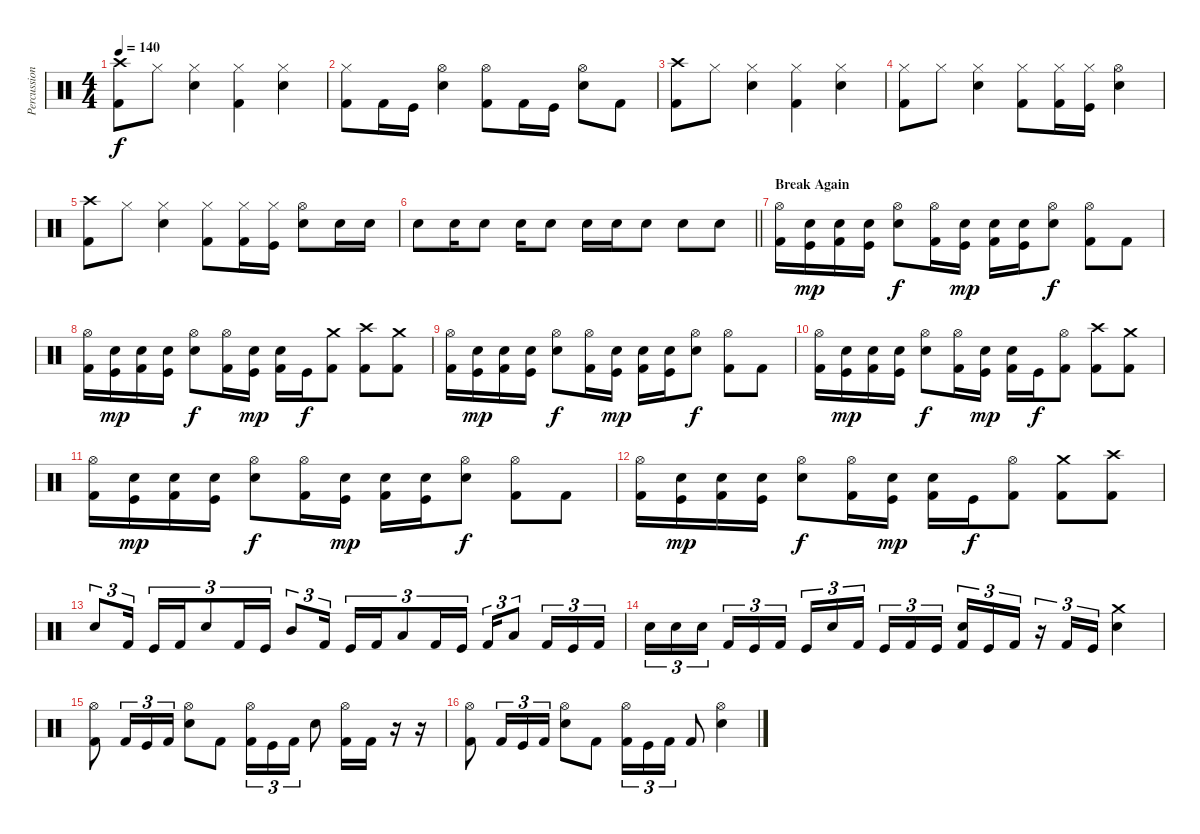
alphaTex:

\track ("Percussion" "Percussion") {instrument percussion}
\staff {score}
\articulation defaults
\ts (4 4)
\tempo 140
\clef neutral
\ks c
("Crash high (hit)" "Kick (hit) 2").8{dy f} "Hi-Hat (closed)".8 ("Hi-Hat (closed)" "Snare (hit) 2").4 ("Hi-Hat (closed)" "Kick (hit) 2").4 ("Hi-Hat (closed)" "Snare (hit) 2").4 |
("Hi-Hat (closed)" "Kick (hit) 2").8 "Kick (hit) 2".16 "Kick (hit)".16 ("Hi-Hat (open)" "Snare (hit) 2").4 ("Hi-Hat (open)" "Kick (hit) 2").8 "Kick (hit) 2".16 "Kick (hit)".16 ("Hi-Hat (open)" "Snare (hit) 2").8 "Kick (hit) 2".8 |
("Crash high (hit)" "Kick (hit) 2").8 "Hi-Hat (closed)".8 ("Hi-Hat (closed)" "Snare (hit) 2").4 ("Hi-Hat (closed)" "Kick (hit) 2").4 ("Hi-Hat (closed)" "Snare (hit) 2").4 |
("Hi-Hat (closed)" "Kick (hit) 2").8 "Hi-Hat (closed)".8 ("Hi-Hat (closed)" "Snare (hit) 2").4 ("Hi-Hat (closed)" "Kick (hit) 2").8 ("Hi-Hat (closed)" "Kick (hit) 2").16 ("Hi-Hat (closed)" "Kick (hit)").16 ("Hi-Hat (open)" "Snare (hit) 2").4 |
("Crash high (hit)" "Kick (hit) 2").8 "Hi-Hat (closed)".8 ("Hi-Hat (closed)" "Snare (hit) 2").4 ("Hi-Hat (closed)" "Kick (hit) 2").8 ("Hi-Hat (closed)" "Kick (hit) 2").16 ("Hi-Hat (closed)" "Kick (hit)").16 ("Hi-Hat (open)" "Snare (hit) 2").8 "Snare (hit) 2".16 "Snare (hit) 2".16 |
\barLineRight lightlight "Snare (hit) 2".8 "Snare (hit) 2".16 "Snare (hit) 2".8 "Snare (hit) 2".16 "Snare (hit) 2".8 "Snare (hit) 2".16 "Snare (hit) 2".16 "Snare (hit) 2".8 "Snare (hit) 2".8 "Snare (hit) 2".8
|
\section ("" "Break Again")
("Hi-Hat (open)" "Kick (hit) 2").16 ("Snare (hit) 2" "Kick (hit)").16{dy mp} ("Snare (hit) 2" "Kick (hit) 2").16 ("Snare (hit) 2" "Kick (hit)").16 ("Hi-Hat (open)" "Snare (hit) 2").8{dy f} ("Hi-Hat (open)" "Kick (hit) 2").16 ("Snare (hit) 2" "Kick (hit)").16{dy mp} ("Snare (hit) 2" "Kick (hit) 2").16 ("Snare (hit) 2" "Kick (hit)").16 ("Hi-Hat (open)" "Snare (hit) 2").8{dy f} ("Hi-Hat (open)" "Kick (hit) 2").8 "Kick (hit) 2".8 |
("Hi-Hat (open)" "Kick (hit) 2").16 ("Snare (hit) 2" "Kick (hit)").16{dy mp} ("Snare (hit) 2" "Kick (hit) 2").16 ("Snare (hit) 2" "Kick (hit)").16 ("Hi-Hat (open)" "Snare (hit) 2").8{dy f} ("Hi-Hat (open)" "Kick (hit) 2").16 ("Snare (hit) 2" "Kick (hit)").16{dy mp} ("Snare (hit) 2" "Kick (hit) 2").16 "Kick (hit)".16{dy f} ("Crash medium (hit)" "Kick (hit) 2").8 ("Crash high (hit)" "Kick (hit) 2").8 ("Crash medium (hit)" "Kick (hit) 2").8 |
("Hi-Hat (open)" "Kick (hit) 2").16 ("Snare (hit) 2" "Kick (hit)").16{dy mp} ("Snare (hit) 2" "Kick (hit) 2").16 ("Snare (hit) 2" "Kick (hit)").16 ("Hi-Hat (open)" "Snare (hit) 2").8{dy f} ("Hi-Hat (open)" "Kick (hit) 2").16 ("Snare (hit) 2" "Kick (hit)").16{dy mp} ("Snare (hit) 2" "Kick (hit) 2").16 ("Snare (hit) 2" "Kick (hit)").16 ("Hi-Hat (open)" "Snare (hit) 2").8{dy f} ("Hi-Hat (open)" "Kick (hit) 2").8 "Kick (hit) 2".8 |
("Hi-Hat (open)" "Kick (hit) 2").16 ("Snare (hit) 2" "Kick (hit)").16{dy mp} ("Snare (hit) 2" "Kick (hit) 2").16 ("Snare (hit) 2" "Kick (hit)").16 ("Hi-Hat (open)" "Snare (hit) 2").8{dy f} ("Hi-Hat (open)" "Kick (hit) 2").16 ("Snare (hit) 2" "Kick (hit)").16{dy mp} ("Snare (hit) 2" "Kick (hit) 2").16 "Kick (hit)".16{dy f} ("Hi-Hat (open)" "Kick (hit) 2").8 ("Crash high (hit)" "Kick (hit) 2").8 ("Crash medium (hit)" "Kick (hit) 2").8 |
("Hi-Hat (open)" "Kick (hit) 2").16 ("Snare (hit) 2" "Kick (hit)").16{dy mp} ("Snare (hit) 2" "Kick (hit) 2").16 ("Snare (hit) 2" "Kick (hit)").16 ("Hi-Hat (open)" "Snare (hit) 2").8{dy f} ("Hi-Hat (open)" "Kick (hit) 2").16 ("Snare (hit) 2" "Kick (hit)").16{dy mp} ("Snare (hit) 2" "Kick (hit) 2").16 ("Snare (hit) 2" "Kick (hit)").16 ("Hi-Hat (open)" "Snare (hit) 2").8{dy f} ("Hi-Hat (open)" "Kick (hit) 2").8 "Kick (hit) 2".8 |
("Hi-Hat (open)" "Kick (hit) 2").16 ("Snare (hit) 2" "Kick (hit)").16{dy mp} ("Snare (hit) 2" "Kick (hit) 2").16 ("Snare (hit) 2" "Kick (hit)").16 ("Hi-Hat (open)" "Snare (hit) 2").8{dy f} ("Hi-Hat (open)" "Kick (hit) 2").16 ("Snare (hit) 2" "Kick (hit)").16{dy mp} ("Snare (hit) 2" "Kick (hit) 2").16 "Kick (hit)".16{dy f} ("Hi-Hat (open)" "Kick (hit) 2").8 ("Crash medium (hit)" "Kick (hit) 2").8 ("Crash high (hit)" "Kick (hit) 2").8 |
"Snare (hit) 2".8{tu (3 2)} "Kick (hit) 2".16{tu (3 2) beam splitsecondary} "Kick (hit)".16{tu (3 2)} "Kick (hit) 2".16{tu (3 2)} "Snare (hit) 2".8{tu (3 2)} "Kick (hit) 2".16{tu (3 2)} "Kick (hit)".16{tu (3 2)} "Mid Tom (hit)".8{tu (3 2)} "Kick (hit) 2".16{tu (3 2)} "Kick (hit)".16{tu (3 2)} "Kick (hit) 2".16{tu (3 2)} "Low Tom (hit)".8{tu (3 2)} "Kick (hit) 2".16{tu (3 2)} "Kick (hit)".16{tu (3 2)} "Kick (hit) 2".16{tu (3 2)} "Low Tom (hit)".8{tu (3 2)} "Kick (hit) 2".16{tu (3 2)} "Kick (hit)".16{tu (3 2)} "Kick (hit) 2".16{tu (3 2)} |
"Snare (hit) 2".16{tu (3 2)} "Snare (hit) 2".16{tu (3 2)} "Snare (hit) 2".16{tu (3 2) beam splitsecondary} "Kick (hit) 2".16{tu (3 2)} "Kick (hit)".16{tu (3 2)} "Kick (hit) 2".16{tu (3 2)} "Kick (hit)".16{tu (3 2)} "Snare (hit) 2".16{tu (3 2)} "Kick (hit) 2".16{tu (3 2) beam splitsecondary} "Kick (hit)".16{tu (3 2)} "Kick (hit) 2".16{tu (3 2)} "Kick (hit)".16{tu (3 2)} ("Snare (hit) 2" "Kick (hit) 2").16{tu (3 2)} "Kick (hit)".16{tu (3 2)} "Kick (hit) 2".16{tu (3 2)} r.16{tu (3 2)} "Kick (hit) 2".16{tu (3 2)} "Kick (hit)".16{tu (3 2)} ("Crash medium (hit)" "Snare (hit) 2").4 |
("Hi-Hat (open)" "Kick (hit) 2").8 "Kick (hit) 2".16{tu (3 2)} "Kick (hit)".16{tu (3 2)} "Kick (hit) 2".16{tu (3 2)} ("Hi-Hat (open)" "Snare (hit) 2").8 "Kick (hit) 2".8 ("Hi-Hat (open)" "Kick (hit) 2").16{tu (3 2)} "Kick (hit)".16{tu (3 2)} "Kick (hit) 2".16{tu (3 2)} "Snare (hit) 2".8 ("Hi-Hat (open)" "Kick (hit) 2").16 "Kick (hit) 2".16 r.16 r.16 |
("Hi-Hat (open)" "Kick (hit) 2").8 "Kick (hit) 2".16{tu (3 2)} "Kick (hit)".16{tu (3 2)} "Kick (hit) 2".16{tu (3 2)} ("Hi-Hat (open)" "Snare (hit) 2").8 "Kick (hit) 2".8 ("Hi-Hat (open)" "Kick (hit) 2").16{tu (3 2)} "Kick (hit)".16{tu (3 2)} "Kick (hit) 2".16{tu (3 2)} "Kick (hit) 2".8 ("Hi-Hat (open)" "Snare (hit) 2").4
